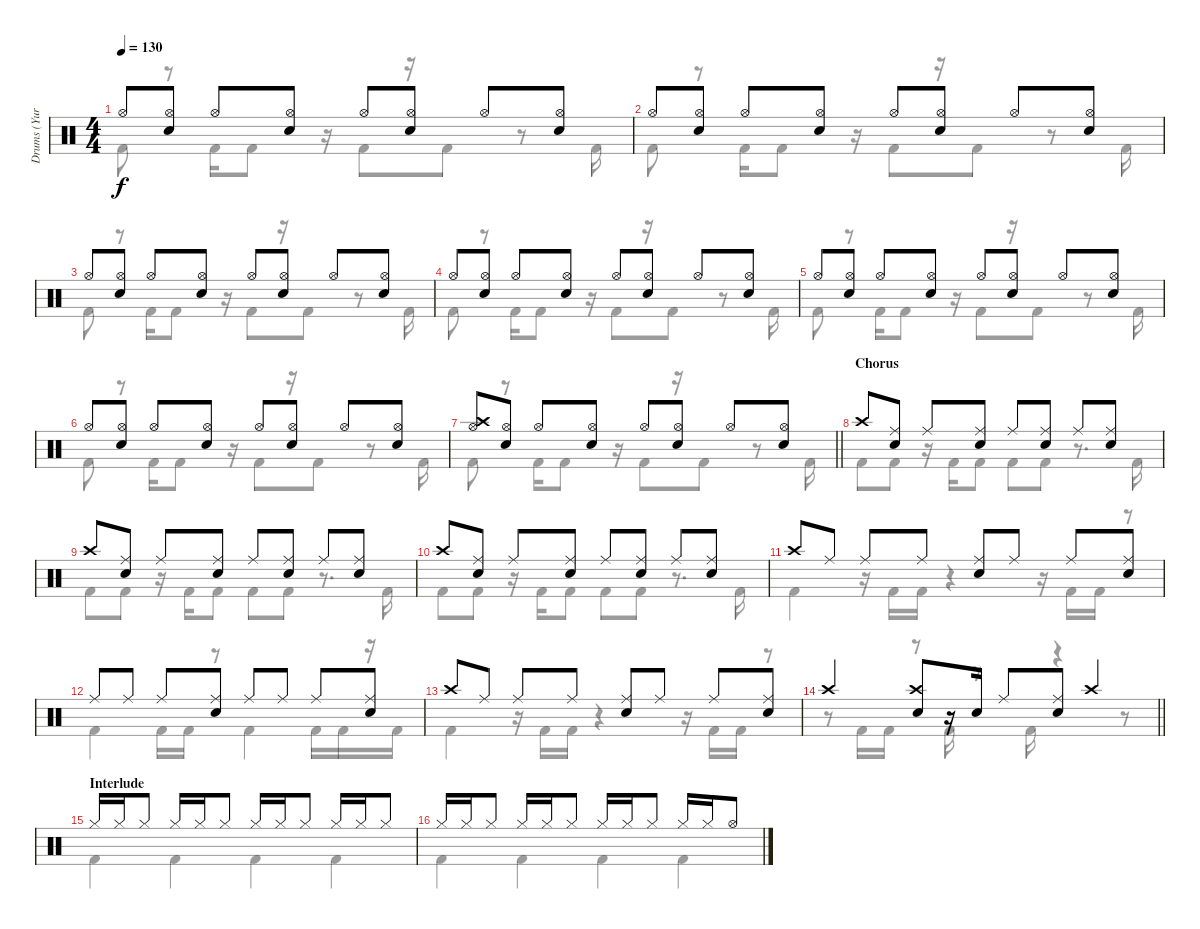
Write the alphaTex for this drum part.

\track ("Drums (Yuri)" "Drums (Yur") {instrument percussion}
\staff {score}
\articulation defaults
\voice
\ts (4 4)
\tempo 130
\clef neutral
\ks c "Hi-Hat (open)".8{dy f}
("Electric Snare (hit)" "Hi-Hat (open)").8 "Hi-Hat (open)".8 ("Electric Snare (hit)" "Hi-Hat (open)").8 "Hi-Hat (open)".8 ("Electric Snare (hit)" "Hi-Hat (open)").8 "Hi-Hat (open)".8 ("Electric Snare (hit)" "Hi-Hat (open)").8 |
"Hi-Hat (open)".8 ("Electric Snare (hit)" "Hi-Hat (open)").8 "Hi-Hat (open)".8 ("Electric Snare (hit)" "Hi-Hat (open)").8 "Hi-Hat (open)".8 ("Electric Snare (hit)" "Hi-Hat (open)").8 "Hi-Hat (open)".8 ("Electric Snare (hit)" "Hi-Hat (open)").8 |
"Hi-Hat (open)".8 ("Electric Snare (hit)" "Hi-Hat (open)").8 "Hi-Hat (open)".8 ("Electric Snare (hit)" "Hi-Hat (open)").8 "Hi-Hat (open)".8 ("Electric Snare (hit)" "Hi-Hat (open)").8 "Hi-Hat (open)".8 ("Electric Snare (hit)" "Hi-Hat (open)").8 |
"Hi-Hat (open)".8 ("Electric Snare (hit)" "Hi-Hat (open)").8 "Hi-Hat (open)".8 ("Electric Snare (hit)" "Hi-Hat (open)").8 "Hi-Hat (open)".8 ("Electric Snare (hit)" "Hi-Hat (open)").8 "Hi-Hat (open)".8 ("Electric Snare (hit)" "Hi-Hat (open)").8 |
"Hi-Hat (open)".8 ("Electric Snare (hit)" "Hi-Hat (open)").8 "Hi-Hat (open)".8 ("Electric Snare (hit)" "Hi-Hat (open)").8 "Hi-Hat (open)".8 ("Electric Snare (hit)" "Hi-Hat (open)").8 "Hi-Hat (open)".8 ("Electric Snare (hit)" "Hi-Hat (open)").8 |
"Hi-Hat (open)".8 ("Electric Snare (hit)" "Hi-Hat (open)").8 "Hi-Hat (open)".8 ("Electric Snare (hit)" "Hi-Hat (open)").8 "Hi-Hat (open)".8 ("Electric Snare (hit)" "Hi-Hat (open)").8 "Hi-Hat (open)".8 ("Electric Snare (hit)" "Hi-Hat (open)").8 |
\barLineRight lightlight
("Crash high (hit)" "Hi-Hat (open)").8 ("Electric Snare (hit)" "Hi-Hat (open)").8 "Hi-Hat (open)".8 ("Electric Snare (hit)" "Hi-Hat (open)").8 "Hi-Hat (open)".8 ("Electric Snare (hit)" "Hi-Hat (open)").8 "Hi-Hat (open)".8 ("Electric Snare (hit)" "Hi-Hat (open)").8 |
\section ("" "Chorus")
"Crash high (hit)".8 ("Ride (middle)" "Electric Snare (hit)").8 "Ride (middle)".8 ("Ride (middle)" "Electric Snare (hit)").8 "Ride (middle)".8 ("Ride (middle)" "Electric Snare (hit)").8 "Ride (middle)".8 ("Ride (middle)" "Electric Snare (hit)").8 |
"Crash high (hit)".8 ("Ride (middle)" "Electric Snare (hit)").8 "Ride (middle)".8 ("Ride (middle)" "Electric Snare (hit)").8 "Ride (middle)".8 ("Ride (middle)" "Electric Snare (hit)").8 "Ride (middle)".8 ("Ride (middle)" "Electric Snare (hit)").8 |
"Crash high (hit)".8 ("Ride (middle)" "Electric Snare (hit)").8 "Ride (middle)".8 ("Ride (middle)" "Electric Snare (hit)").8 "Ride (middle)".8 ("Ride (middle)" "Electric Snare (hit)").8 "Ride (middle)".8 ("Ride (middle)" "Electric Snare (hit)").8 |
"Crash high (hit)".8 "Ride (middle)".8 "Ride (middle)".8 "Ride (middle)".8 ("Ride (middle)" "Electric Snare (hit)").8 "Ride (middle)".8 "Ride (middle)".8 ("Ride (middle)" "Electric Snare (hit)").8 |
"Ride (middle)".8 "Ride (middle)".8 "Ride (middle)".8 ("Ride (middle)" "Electric Snare (hit)").8 "Ride (middle)".8 "Ride (middle)".8 "Ride (middle)".8 ("Ride (middle)" "Electric Snare (hit)").8 |
"Crash high (hit)".8 "Ride (middle)".8 "Ride (middle)".8 "Ride (middle)".8 ("Ride (middle)" "Electric Snare (hit)").8 "Ride (middle)".8 "Ride (middle)".8 ("Ride (middle)" "Electric Snare (hit)").8 |
\barLineRight lightlight "Crash high (hit)".4
("Crash high (hit)" "Electric Snare (hit)").8 r.16 "Electric Snare (hit)".16 "Ride (middle)".8 ("Ride (middle)" "Electric Snare (hit)").8 "Crash high (hit)".4 |
\section ("" "Interlude")
"Hi-Hat (closed)".16 "Hi-Hat (closed)".16 "Hi-Hat (closed)".8 "Hi-Hat (closed)".16 "Hi-Hat (closed)".16 "Hi-Hat (closed)".8 "Hi-Hat (closed)".16 "Hi-Hat (closed)".16 "Hi-Hat (closed)".8 "Hi-Hat (closed)".16 "Hi-Hat (closed)".16 "Hi-Hat (closed)".8 |
"Hi-Hat (closed)".16 "Hi-Hat (closed)".16 "Hi-Hat (closed)".8 "Hi-Hat (closed)".16 "Hi-Hat (closed)".16 "Hi-Hat (closed)".8 "Hi-Hat (closed)".16 "Hi-Hat (closed)".16 "Hi-Hat (closed)".8 "Hi-Hat (closed)".16 "Hi-Hat (closed)".16 "Hi-Hat (open)".8
\voice
\clef neutral
\ottava regular
\simile none
\ks c "Kick (hit) 2".8{dy f}
r.8 "Kick (hit) 2".16 "Kick (hit) 2".8 r.16 "Kick (hit) 2".8 r.16 "Kick (hit) 2".8 r.8 "Kick (hit) 2".16 |
"Kick (hit) 2".8 r.8 "Kick (hit) 2".16 "Kick (hit) 2".8 r.16 "Kick (hit) 2".8 r.16 "Kick (hit) 2".8 r.8 "Kick (hit) 2".16 |
"Kick (hit) 2".8 r.8 "Kick (hit) 2".16 "Kick (hit) 2".8 r.16 "Kick (hit) 2".8 r.16 "Kick (hit) 2".8 r.8 "Kick (hit) 2".16 |
"Kick (hit) 2".8 r.8 "Kick (hit) 2".16 "Kick (hit) 2".8 r.16 "Kick (hit) 2".8 r.16 "Kick (hit) 2".8 r.8 "Kick (hit) 2".16 |
"Kick (hit) 2".8 r.8 "Kick (hit) 2".16 "Kick (hit) 2".8 r.16 "Kick (hit) 2".8 r.16 "Kick (hit) 2".8 r.8 "Kick (hit) 2".16 |
"Kick (hit) 2".8 r.8 "Kick (hit) 2".16 "Kick (hit) 2".8 r.16 "Kick (hit) 2".8 r.16 "Kick (hit) 2".8 r.8 "Kick (hit) 2".16 |
\barLineRight lightlight "Kick (hit) 2".8
r.8 "Kick (hit) 2".16 "Kick (hit) 2".8 r.16 "Kick (hit) 2".8 r.16 "Kick (hit) 2".8 r.8 "Kick (hit) 2".16 |
"Kick (hit) 2".8 "Kick (hit) 2".8 r.16 "Kick (hit) 2".16 "Kick (hit) 2".8 "Kick (hit) 2".8 "Kick (hit) 2".8 r.8{d} "Kick (hit) 2".16 |
"Kick (hit) 2".8 "Kick (hit) 2".8 r.16 "Kick (hit) 2".16 "Kick (hit) 2".8 "Kick (hit) 2".8 "Kick (hit) 2".8 r.8{d} "Kick (hit) 2".16 |
"Kick (hit) 2".8 "Kick (hit) 2".8 r.16 "Kick (hit) 2".16 "Kick (hit) 2".8 "Kick (hit) 2".8 "Kick (hit) 2".8 r.8{d} "Kick (hit) 2".16 |
"Kick (hit) 2".4 r.16 "Kick (hit) 2".16 "Kick (hit) 2".16 r.4 r.16 "Kick (hit) 2".16 "Kick (hit) 2".16 r.8 |
"Kick (hit) 2".4 "Kick (hit) 2".16 "Kick (hit) 2".16 r.8 "Kick (hit) 2".4 "Kick (hit) 2".16 "Kick (hit) 2".16 r.16 "Kick (hit) 2".16 |
"Kick (hit) 2".4 r.16 "Kick (hit) 2".16 "Kick (hit) 2".16 r.4 r.16 "Kick (hit) 2".16 "Kick (hit) 2".16 r.8 |
\barLineRight lightlight
r.8 "Kick (hit) 2".16 "Kick (hit) 2".16 r.8 "Kick (hit) 2".16 r.8 "Kick (hit) 2".16 r.4 r.8 |
"Kick (hit) 2".4 "Kick (hit) 2".4 "Kick (hit) 2".4 "Kick (hit) 2".4 |
"Kick (hit) 2".4 "Kick (hit) 2".4 "Kick (hit) 2".4 "Kick (hit) 2".4
